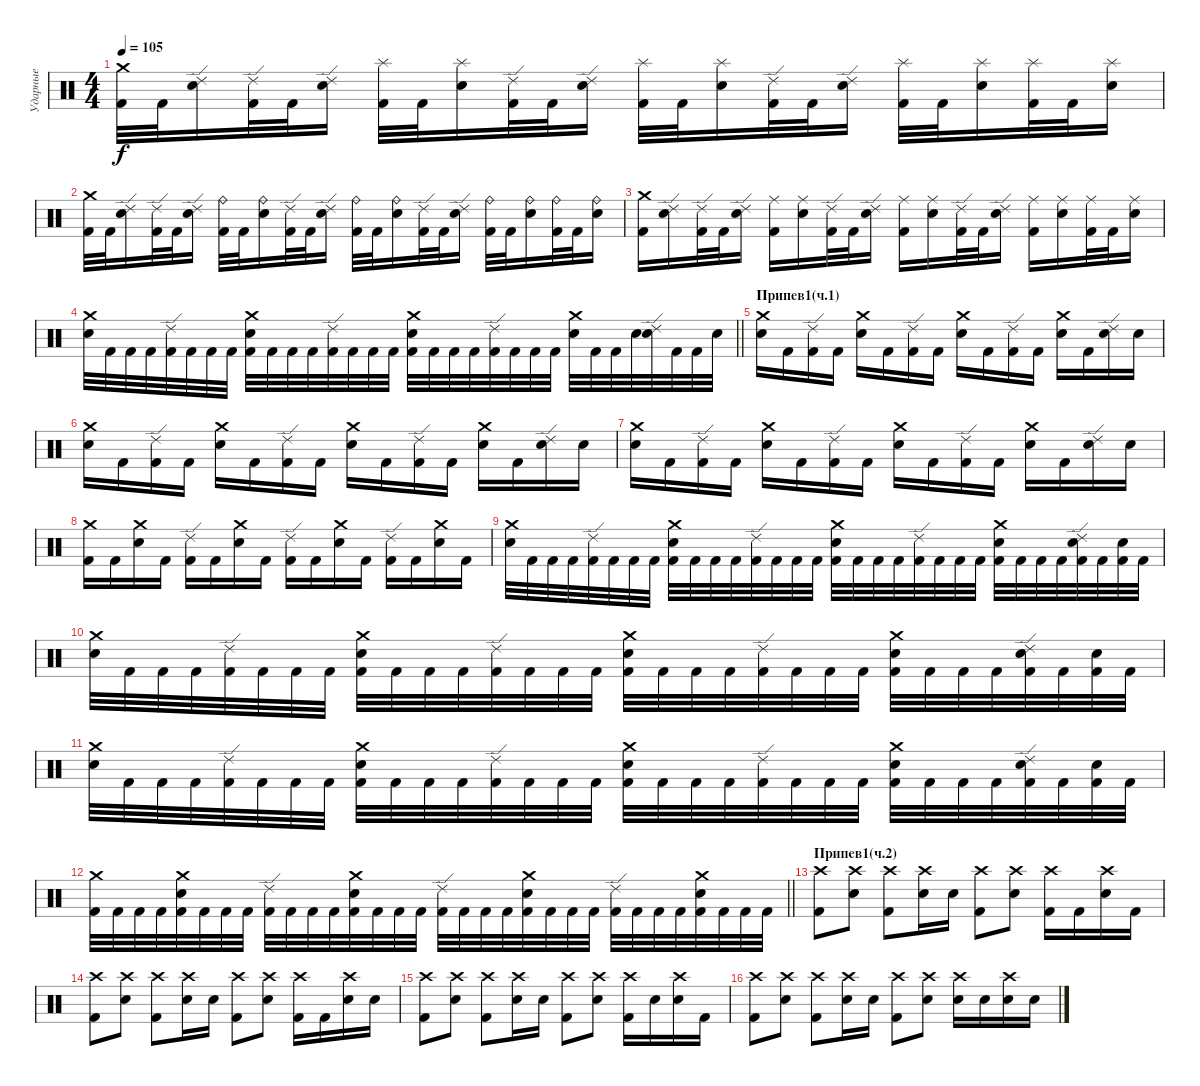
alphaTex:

\track ("Ударные" "Ударные") {instrument percussion}
\staff {score}
\articulation defaults
\ts (4 4)
\tempo 105
\clef neutral
\ks c
("Crash medium (hit)" "Kick (hit) 2").32{dy f} "Kick (hit) 2".32 ("Ride (edge) 2" "Electric Snare (hit)").16 ("Ride (edge) 2" "Kick (hit) 2").32 "Kick (hit) 2".32 ("Ride (edge) 2" "Electric Snare (hit)").16 ("Splash (hit)" "Kick (hit) 2").32 "Kick (hit) 2".32 ("Splash (hit)" "Electric Snare (hit)").16 ("Ride (edge) 2" "Kick (hit) 2").32 "Kick (hit) 2".32 ("Ride (edge) 2" "Electric Snare (hit)").16 ("Splash (hit)" "Kick (hit) 2").32 "Kick (hit) 2".32 ("Splash (hit)" "Electric Snare (hit)").16 ("Ride (edge) 2" "Kick (hit) 2").32 "Kick (hit) 2".32 ("Ride (edge) 2" "Electric Snare (hit)").16 ("Splash (hit)" "Kick (hit) 2").32 "Kick (hit) 2".32 ("Splash (hit)" "Electric Snare (hit)").16 ("Splash (hit)" "Kick (hit) 2").32 "Kick (hit) 2".32 ("Splash (hit)" "Electric Snare (hit)").16 |
("Crash medium (hit)" "Kick (hit) 2").32 "Kick (hit) 2".32 ("Ride (edge) 2" "Electric Snare (hit)").16 ("Ride (edge) 2" "Kick (hit) 2").32 "Kick (hit) 2".32 ("Ride (edge) 2" "Electric Snare (hit)").16 ("Ride (bell)" "Kick (hit) 2").32 "Kick (hit) 2".32 ("Ride (bell)" "Electric Snare (hit)").16 ("Ride (edge) 2" "Kick (hit) 2").32 "Kick (hit) 2".32 ("Ride (edge) 2" "Electric Snare (hit)").16 ("Ride (bell)" "Kick (hit) 2").32 "Kick (hit) 2".32 ("Ride (bell)" "Electric Snare (hit)").16 ("Ride (edge) 2" "Kick (hit) 2").32 "Kick (hit) 2".32 ("Ride (edge) 2" "Electric Snare (hit)").16 ("Ride (bell)" "Kick (hit) 2").32 "Kick (hit) 2".32 ("Ride (bell)" "Electric Snare (hit)").16 ("Ride (bell)" "Kick (hit) 2").32 "Kick (hit) 2".32 ("Ride (bell)" "Electric Snare (hit)").16 |
("Crash medium (hit)" "Kick (hit) 2").16 ("Ride (edge) 2" "Electric Snare (hit)").16 ("Ride (edge) 2" "Kick (hit) 2").32 "Kick (hit) 2".32 ("Ride (edge) 2" "Electric Snare (hit)").16 ("Ride (middle)" "Kick (hit) 2").16 ("Ride (middle)" "Electric Snare (hit)").16 ("Ride (edge) 2" "Kick (hit) 2").32 "Kick (hit) 2".32 ("Ride (edge) 2" "Electric Snare (hit)").16 ("Ride (middle)" "Kick (hit) 2").16 ("Ride (middle)" "Electric Snare (hit)").16 ("Ride (edge) 2" "Kick (hit) 2").32 "Kick (hit) 2".32 ("Ride (edge) 2" "Electric Snare (hit)").16 ("Ride (middle)" "Kick (hit) 2").16 ("Ride (middle)" "Electric Snare (hit)").16 ("Ride (middle)" "Kick (hit) 2").32 "Kick (hit) 2".32 ("Ride (middle)" "Electric Snare (hit)").16 |
\barLineRight lightlight
("Crash medium (hit)" "Electric Snare (hit)").32 "Kick (hit) 2".32 "Kick (hit) 2".32 "Kick (hit) 2".32 ("Ride (edge) 2" "Kick (hit) 2").32 "Kick (hit) 2".32 "Kick (hit) 2".32 "Kick (hit) 2".32 ("Crash medium (hit)" "Kick (hit) 2" "Electric Snare (hit)").32 "Kick (hit) 2".32 "Kick (hit) 2".32 "Kick (hit) 2".32 ("Ride (edge) 2" "Kick (hit) 2").32 "Kick (hit) 2".32 "Kick (hit) 2".32 "Kick (hit) 2".32 ("Crash medium (hit)" "Kick (hit) 2" "Electric Snare (hit)").32 "Kick (hit) 2".32 "Kick (hit) 2".32 "Kick (hit) 2".32 ("Ride (edge) 2" "Kick (hit) 2").32 "Kick (hit) 2".32 "Kick (hit) 2".32 "Kick (hit) 2".32 ("Crash medium (hit)" "Electric Snare (hit)").32 "Kick (hit) 2".32 "Kick (hit) 2".32 "Electric Snare (hit)".32 ("Ride (edge) 2" "Electric Snare (hit)").32 "Kick (hit) 2".32 "Kick (hit) 2".32 "Electric Snare (hit)".32 |
\section ("" "Припев1(ч.1)")
("Crash medium (hit)" "Electric Snare (hit)").16 "Kick (hit) 2".16 ("Ride (edge) 2" "Kick (hit) 2").16 "Kick (hit) 2".16 ("Crash medium (hit)" "Electric Snare (hit)").16 "Kick (hit) 2".16 ("Ride (edge) 2" "Kick (hit) 2").16 "Kick (hit) 2".16 ("Crash medium (hit)" "Electric Snare (hit)").16 "Kick (hit) 2".16 ("Ride (edge) 2" "Kick (hit) 2").16 "Kick (hit) 2".16 ("Crash medium (hit)" "Electric Snare (hit)").16 "Kick (hit) 2".16 ("Ride (edge) 2" "Electric Snare (hit)").16 "Electric Snare (hit)".16 |
("Crash medium (hit)" "Electric Snare (hit)").16 "Kick (hit) 2".16 ("Ride (edge) 2" "Kick (hit) 2").16 "Kick (hit) 2".16 ("Crash medium (hit)" "Electric Snare (hit)").16 "Kick (hit) 2".16 ("Ride (edge) 2" "Kick (hit) 2").16 "Kick (hit) 2".16 ("Crash medium (hit)" "Electric Snare (hit)").16 "Kick (hit) 2".16 ("Ride (edge) 2" "Kick (hit) 2").16 "Kick (hit) 2".16 ("Crash medium (hit)" "Electric Snare (hit)").16 "Kick (hit) 2".16 ("Ride (edge) 2" "Electric Snare (hit)").16 "Electric Snare (hit)".16 |
("Crash medium (hit)" "Electric Snare (hit)").16 "Kick (hit) 2".16 ("Ride (edge) 2" "Kick (hit) 2").16 "Kick (hit) 2".16 ("Crash medium (hit)" "Electric Snare (hit)").16 "Kick (hit) 2".16 ("Ride (edge) 2" "Kick (hit) 2").16 "Kick (hit) 2".16 ("Crash medium (hit)" "Electric Snare (hit)").16 "Kick (hit) 2".16 ("Ride (edge) 2" "Kick (hit) 2").16 "Kick (hit) 2".16 ("Crash medium (hit)" "Electric Snare (hit)").16 "Kick (hit) 2".16 ("Ride (edge) 2" "Electric Snare (hit)").16 "Electric Snare (hit)".16 |
("Crash medium (hit)" "Kick (hit) 2").16 "Kick (hit) 2".16 ("Crash medium (hit)" "Electric Snare (hit)").16 "Kick (hit) 2".16 ("Ride (edge) 2" "Kick (hit) 2").16 "Kick (hit) 2".16 ("Crash medium (hit)" "Electric Snare (hit)").16 "Kick (hit) 2".16 ("Ride (edge) 2" "Kick (hit) 2").16 "Kick (hit) 2".16 ("Crash medium (hit)" "Electric Snare (hit)").16 "Kick (hit) 2".16 ("Ride (edge) 2" "Kick (hit) 2").16 "Kick (hit) 2".16 ("Crash medium (hit)" "Electric Snare (hit)").16 "Kick (hit) 2".16 |
("Crash medium (hit)" "Electric Snare (hit)").32 "Kick (hit) 2".32 "Kick (hit) 2".32 "Kick (hit) 2".32 ("Ride (edge) 2" "Kick (hit) 2").32 "Kick (hit) 2".32 "Kick (hit) 2".32 "Kick (hit) 2".32 ("Kick (hit) 2" "Crash medium (hit)" "Electric Snare (hit)").32 "Kick (hit) 2".32 "Kick (hit) 2".32 "Kick (hit) 2".32 ("Ride (edge) 2" "Kick (hit) 2").32 "Kick (hit) 2".32 "Kick (hit) 2".32 "Kick (hit) 2".32 ("Kick (hit) 2" "Crash medium (hit)" "Electric Snare (hit)").32 "Kick (hit) 2".32 "Kick (hit) 2".32 "Kick (hit) 2".32 ("Ride (edge) 2" "Kick (hit) 2").32 "Kick (hit) 2".32 "Kick (hit) 2".32 "Kick (hit) 2".32 ("Kick (hit) 2" "Crash medium (hit)" "Electric Snare (hit)").32 "Kick (hit) 2".32 "Kick (hit) 2".32 "Kick (hit) 2".32 ("Electric Snare (hit)" "Ride (edge) 2" "Kick (hit) 2").32 "Kick (hit) 2".32 ("Electric Snare (hit)" "Kick (hit) 2").32 "Kick (hit) 2".32 |
("Crash medium (hit)" "Electric Snare (hit)").32 "Kick (hit) 2".32 "Kick (hit) 2".32 "Kick (hit) 2".32 ("Ride (edge) 2" "Kick (hit) 2").32 "Kick (hit) 2".32 "Kick (hit) 2".32 "Kick (hit) 2".32 ("Kick (hit) 2" "Crash medium (hit)" "Electric Snare (hit)").32 "Kick (hit) 2".32 "Kick (hit) 2".32 "Kick (hit) 2".32 ("Ride (edge) 2" "Kick (hit) 2").32 "Kick (hit) 2".32 "Kick (hit) 2".32 "Kick (hit) 2".32 ("Kick (hit) 2" "Crash medium (hit)" "Electric Snare (hit)").32 "Kick (hit) 2".32 "Kick (hit) 2".32 "Kick (hit) 2".32 ("Ride (edge) 2" "Kick (hit) 2").32 "Kick (hit) 2".32 "Kick (hit) 2".32 "Kick (hit) 2".32 ("Kick (hit) 2" "Crash medium (hit)" "Electric Snare (hit)").32 "Kick (hit) 2".32 "Kick (hit) 2".32 "Kick (hit) 2".32 ("Electric Snare (hit)" "Ride (edge) 2" "Kick (hit) 2").32 "Kick (hit) 2".32 ("Electric Snare (hit)" "Kick (hit) 2").32 "Kick (hit) 2".32 |
("Crash medium (hit)" "Electric Snare (hit)").32 "Kick (hit) 2".32 "Kick (hit) 2".32 "Kick (hit) 2".32 ("Ride (edge) 2" "Kick (hit) 2").32 "Kick (hit) 2".32 "Kick (hit) 2".32 "Kick (hit) 2".32 ("Kick (hit) 2" "Crash medium (hit)" "Electric Snare (hit)").32 "Kick (hit) 2".32 "Kick (hit) 2".32 "Kick (hit) 2".32 ("Ride (edge) 2" "Kick (hit) 2").32 "Kick (hit) 2".32 "Kick (hit) 2".32 "Kick (hit) 2".32 ("Kick (hit) 2" "Crash medium (hit)" "Electric Snare (hit)").32 "Kick (hit) 2".32 "Kick (hit) 2".32 "Kick (hit) 2".32 ("Ride (edge) 2" "Kick (hit) 2").32 "Kick (hit) 2".32 "Kick (hit) 2".32 "Kick (hit) 2".32 ("Kick (hit) 2" "Crash medium (hit)" "Electric Snare (hit)").32 "Kick (hit) 2".32 "Kick (hit) 2".32 "Kick (hit) 2".32 ("Electric Snare (hit)" "Ride (edge) 2" "Kick (hit) 2").32 "Kick (hit) 2".32 ("Electric Snare (hit)" "Kick (hit) 2").32 "Kick (hit) 2".32 |
\barLineRight lightlight
("Crash medium (hit)" "Kick (hit) 2").32 "Kick (hit) 2".32 "Kick (hit) 2".32 "Kick (hit) 2".32 ("Kick (hit) 2" "Crash medium (hit)" "Electric Snare (hit)").32 "Kick (hit) 2".32 "Kick (hit) 2".32 "Kick (hit) 2".32 ("Ride (edge) 2" "Kick (hit) 2").32 "Kick (hit) 2".32 "Kick (hit) 2".32 "Kick (hit) 2".32 ("Kick (hit) 2" "Crash medium (hit)" "Electric Snare (hit)").32 "Kick (hit) 2".32 "Kick (hit) 2".32 "Kick (hit) 2".32 ("Ride (edge) 2" "Kick (hit) 2").32 "Kick (hit) 2".32 "Kick (hit) 2".32 "Kick (hit) 2".32 ("Kick (hit) 2" "Crash medium (hit)" "Electric Snare (hit)").32 "Kick (hit) 2".32 "Kick (hit) 2".32 "Kick (hit) 2".32 ("Ride (edge) 2" "Kick (hit) 2").32 "Kick (hit) 2".32 "Kick (hit) 2".32 "Kick (hit) 2".32 ("Kick (hit) 2" "Crash medium (hit)" "Electric Snare (hit)").32 "Kick (hit) 2".32 "Kick (hit) 2".32 "Kick (hit) 2".32 |
\section ("" "Припев1(ч.2)")
("Crash high (hit)" "Kick (hit) 2").8 ("Crash high (hit)" "Electric Snare (hit)").8 ("Crash high (hit)" "Kick (hit) 2").8 ("Crash high (hit)" "Electric Snare (hit)").16 "Electric Snare (hit)".16 ("Crash high (hit)" "Kick (hit) 2").8 ("Crash high (hit)" "Electric Snare (hit)").8 ("Crash high (hit)" "Kick (hit) 2").16 "Kick (hit) 2".16 ("Crash high (hit)" "Electric Snare (hit)").16 "Kick (hit) 2".16 |
("Crash high (hit)" "Kick (hit) 2").8 ("Crash high (hit)" "Electric Snare (hit)").8 ("Crash high (hit)" "Kick (hit) 2").8 ("Crash high (hit)" "Electric Snare (hit)").16 "Electric Snare (hit)".16 ("Crash high (hit)" "Kick (hit) 2").8 ("Crash high (hit)" "Electric Snare (hit)").8 ("Crash high (hit)" "Kick (hit) 2").16 "Kick (hit) 2".16 ("Crash high (hit)" "Electric Snare (hit)").16 "Electric Snare (hit)".16 |
("Crash high (hit)" "Kick (hit) 2").8 ("Crash high (hit)" "Electric Snare (hit)").8 ("Crash high (hit)" "Kick (hit) 2").8 ("Crash high (hit)" "Electric Snare (hit)").16 "Electric Snare (hit)".16 ("Crash high (hit)" "Kick (hit) 2").8 ("Crash high (hit)" "Electric Snare (hit)").8 ("Crash high (hit)" "Kick (hit) 2").16 "Electric Snare (hit)".16 ("Crash high (hit)" "Electric Snare (hit)").16 "Kick (hit) 2".16 |
("Crash high (hit)" "Kick (hit) 2").8 ("Crash high (hit)" "Electric Snare (hit)").8 ("Crash high (hit)" "Kick (hit) 2").8 ("Crash high (hit)" "Electric Snare (hit)").16 "Electric Snare (hit)".16 ("Crash high (hit)" "Kick (hit) 2").8 ("Crash high (hit)" "Electric Snare (hit)").8 ("Electric Snare (hit)" "Crash high (hit)").16 "Electric Snare (hit)".16 ("Crash high (hit)" "Electric Snare (hit)").16 "Electric Snare (hit)".16
